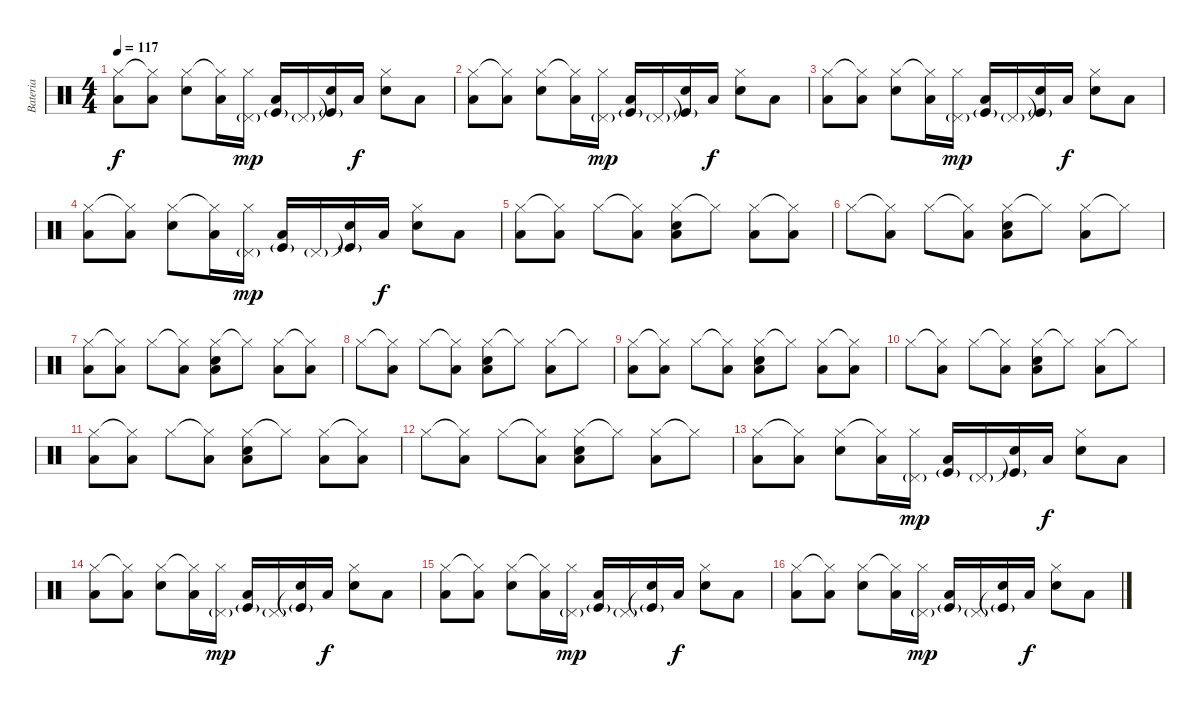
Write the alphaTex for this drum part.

\track ("Bateria" "Bateria") {instrument percussion}
\staff {score}
\articulation defaults
\ts (4 4)
\tempo 117
\clef neutral
\ks c
("Hi-Hat (closed)" "Low Tom (hit)").8{dy f} ("Hi-Hat (closed)"{t} "Low Tom (hit)").8 ("Hi-Hat (closed)" "Snare (hit) 2").8 ("Hi-Hat (closed)"{t} "Low Tom (hit)").16 ("Hi-Hat (closed)" "Pedal Hi-Hat (hit)"{g}).16{dy mp} ("Kick (hit)"{g} "Low Tom (hit)").16 "Pedal Hi-Hat (hit)"{g}.16 ("Snare (hit)"{t} "Kick (hit)"{g}).16 "Low Tom (hit)".16{dy f} ("Hi-Hat (closed)" "Snare (hit) 2").8 "Low Tom (hit)".8 |
("Hi-Hat (closed)" "Low Tom (hit)").8 ("Hi-Hat (closed)"{t} "Low Tom (hit)").8 ("Hi-Hat (closed)" "Snare (hit) 2").8 ("Hi-Hat (closed)"{t} "Low Tom (hit)").16 ("Hi-Hat (closed)" "Pedal Hi-Hat (hit)"{g}).16{dy mp} ("Kick (hit)"{g} "Low Tom (hit)").16 "Pedal Hi-Hat (hit)"{g}.16 ("Snare (hit)"{t} "Kick (hit)"{g}).16 "Low Tom (hit)".16{dy f} ("Hi-Hat (closed)" "Snare (hit) 2").8 "Low Tom (hit)".8 |
("Hi-Hat (closed)" "Low Tom (hit)").8 ("Hi-Hat (closed)"{t} "Low Tom (hit)").8 ("Hi-Hat (closed)" "Snare (hit) 2").8 ("Hi-Hat (closed)"{t} "Low Tom (hit)").16 ("Hi-Hat (closed)" "Pedal Hi-Hat (hit)"{g}).16{dy mp} ("Kick (hit)"{g} "Low Tom (hit)").16 "Pedal Hi-Hat (hit)"{g}.16 ("Snare (hit)"{t} "Kick (hit)"{g}).16 "Low Tom (hit)".16{dy f} ("Hi-Hat (closed)" "Snare (hit) 2").8 "Low Tom (hit)".8 |
("Hi-Hat (closed)" "Low Tom (hit)").8 ("Hi-Hat (closed)"{t} "Low Tom (hit)").8 ("Hi-Hat (closed)" "Snare (hit) 2").8 ("Hi-Hat (closed)"{t} "Low Tom (hit)").16 ("Hi-Hat (closed)" "Pedal Hi-Hat (hit)"{g}).16{dy mp} ("Kick (hit)"{g} "Low Tom (hit)").16 "Pedal Hi-Hat (hit)"{g}.16 ("Snare (hit)"{t} "Kick (hit)"{g}).16 "Low Tom (hit)".16{dy f} ("Hi-Hat (closed)" "Snare (hit) 2").8 "Low Tom (hit)".8 |
("Hi-Hat (closed)" "Low Tom (hit)").8 ("Hi-Hat (closed)"{t} "Low Tom (hit)").8 "Hi-Hat (closed)".8 ("Hi-Hat (closed)"{t} "Low Tom (hit)").8 ("Hi-Hat (closed)" "Snare (hit) 2" "Low Tom (hit)").8 "Hi-Hat (closed)"{t}.8 ("Hi-Hat (closed)" "Low Tom (hit)").8 ("Hi-Hat (closed)"{t} "Low Tom (hit)").8 |
"Hi-Hat (closed)".8 ("Hi-Hat (closed)"{t} "Low Tom (hit)").8 "Hi-Hat (closed)".8 ("Hi-Hat (closed)"{t} "Low Tom (hit)").8 ("Hi-Hat (closed)" "Snare (hit) 2" "Low Tom (hit)").8 "Hi-Hat (closed)"{t}.8 ("Hi-Hat (closed)" "Low Tom (hit)").8 "Hi-Hat (closed)"{t}.8 |
("Hi-Hat (closed)" "Low Tom (hit)").8 ("Hi-Hat (closed)"{t} "Low Tom (hit)").8 "Hi-Hat (closed)".8 ("Hi-Hat (closed)"{t} "Low Tom (hit)").8 ("Hi-Hat (closed)" "Snare (hit) 2" "Low Tom (hit)").8 "Hi-Hat (closed)"{t}.8 ("Hi-Hat (closed)" "Low Tom (hit)").8 ("Hi-Hat (closed)"{t} "Low Tom (hit)").8 |
"Hi-Hat (closed)".8 ("Hi-Hat (closed)"{t} "Low Tom (hit)").8 "Hi-Hat (closed)".8 ("Hi-Hat (closed)"{t} "Low Tom (hit)").8 ("Hi-Hat (closed)" "Snare (hit) 2" "Low Tom (hit)").8 "Hi-Hat (closed)"{t}.8 ("Hi-Hat (closed)" "Low Tom (hit)").8 "Hi-Hat (closed)"{t}.8 |
("Hi-Hat (closed)" "Low Tom (hit)").8 ("Hi-Hat (closed)"{t} "Low Tom (hit)").8 "Hi-Hat (closed)".8 ("Hi-Hat (closed)"{t} "Low Tom (hit)").8 ("Hi-Hat (closed)" "Snare (hit) 2" "Low Tom (hit)").8 "Hi-Hat (closed)"{t}.8 ("Hi-Hat (closed)" "Low Tom (hit)").8 ("Hi-Hat (closed)"{t} "Low Tom (hit)").8 |
"Hi-Hat (closed)".8 ("Hi-Hat (closed)"{t} "Low Tom (hit)").8 "Hi-Hat (closed)".8 ("Hi-Hat (closed)"{t} "Low Tom (hit)").8 ("Hi-Hat (closed)" "Snare (hit) 2" "Low Tom (hit)").8 "Hi-Hat (closed)"{t}.8 ("Hi-Hat (closed)" "Low Tom (hit)").8 "Hi-Hat (closed)"{t}.8 |
("Hi-Hat (closed)" "Low Tom (hit)").8 ("Hi-Hat (closed)"{t} "Low Tom (hit)").8 "Hi-Hat (closed)".8 ("Hi-Hat (closed)"{t} "Low Tom (hit)").8 ("Hi-Hat (closed)" "Snare (hit) 2" "Low Tom (hit)").8 "Hi-Hat (closed)"{t}.8 ("Hi-Hat (closed)" "Low Tom (hit)").8 ("Hi-Hat (closed)"{t} "Low Tom (hit)").8 |
"Hi-Hat (closed)".8 ("Hi-Hat (closed)"{t} "Low Tom (hit)").8 "Hi-Hat (closed)".8 ("Hi-Hat (closed)"{t} "Low Tom (hit)").8 ("Hi-Hat (closed)" "Snare (hit) 2" "Low Tom (hit)").8 "Hi-Hat (closed)"{t}.8 ("Hi-Hat (closed)" "Low Tom (hit)").8 "Hi-Hat (closed)"{t}.8 |
("Hi-Hat (closed)" "Low Tom (hit)").8 ("Hi-Hat (closed)"{t} "Low Tom (hit)").8 ("Hi-Hat (closed)" "Snare (hit) 2").8 ("Hi-Hat (closed)"{t} "Low Tom (hit)").16 ("Hi-Hat (closed)" "Pedal Hi-Hat (hit)"{g}).16{dy mp} ("Kick (hit)"{g} "Low Tom (hit)").16 "Pedal Hi-Hat (hit)"{g}.16 ("Snare (hit)"{t} "Kick (hit)"{g}).16 "Low Tom (hit)".16{dy f} ("Hi-Hat (closed)" "Snare (hit) 2").8 "Low Tom (hit)".8 |
("Hi-Hat (closed)" "Low Tom (hit)").8 ("Hi-Hat (closed)"{t} "Low Tom (hit)").8 ("Hi-Hat (closed)" "Snare (hit) 2").8 ("Hi-Hat (closed)"{t} "Low Tom (hit)").16 ("Hi-Hat (closed)" "Pedal Hi-Hat (hit)"{g}).16{dy mp} ("Kick (hit)"{g} "Low Tom (hit)").16 "Pedal Hi-Hat (hit)"{g}.16 ("Snare (hit)"{t} "Kick (hit)"{g}).16 "Low Tom (hit)".16{dy f} ("Hi-Hat (closed)" "Snare (hit) 2").8 "Low Tom (hit)".8 |
("Hi-Hat (closed)" "Low Tom (hit)").8 ("Hi-Hat (closed)"{t} "Low Tom (hit)").8 ("Hi-Hat (closed)" "Snare (hit) 2").8 ("Hi-Hat (closed)"{t} "Low Tom (hit)").16 ("Hi-Hat (closed)" "Pedal Hi-Hat (hit)"{g}).16{dy mp} ("Kick (hit)"{g} "Low Tom (hit)").16 "Pedal Hi-Hat (hit)"{g}.16 ("Snare (hit)"{t} "Kick (hit)"{g}).16 "Low Tom (hit)".16{dy f} ("Hi-Hat (closed)" "Snare (hit) 2").8 "Low Tom (hit)".8 |
("Hi-Hat (closed)" "Low Tom (hit)").8 ("Hi-Hat (closed)"{t} "Low Tom (hit)").8 ("Hi-Hat (closed)" "Snare (hit) 2").8 ("Hi-Hat (closed)"{t} "Low Tom (hit)").16 ("Hi-Hat (closed)" "Pedal Hi-Hat (hit)"{g}).16{dy mp} ("Kick (hit)"{g} "Low Tom (hit)").16 "Pedal Hi-Hat (hit)"{g}.16 ("Snare (hit)"{t} "Kick (hit)"{g}).16 "Low Tom (hit)".16{dy f} ("Hi-Hat (closed)" "Snare (hit) 2").8 "Low Tom (hit)".8
